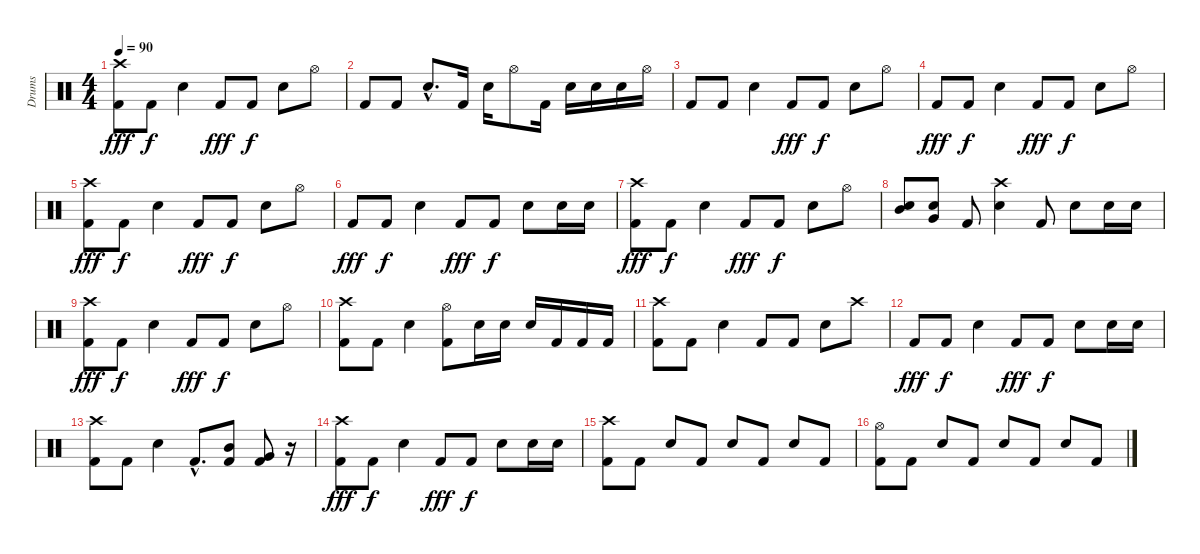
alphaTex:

\track ("Drums" "Drums") {instrument percussion}
\staff {score}
\articulation defaults
\ts (4 4)
\tempo 90
\clef neutral
\ks c
("Crash high (hit)" "Kick (hit) 2").8{dy fff} "Kick (hit) 2".8{dy f} "Snare (hit) 2".4 "Kick (hit) 2".8{dy fff} "Kick (hit) 2".8{dy f} "Snare (hit) 2".8 "Hi-Hat (open)".8 |
"Kick (hit) 2".8 "Kick (hit) 2".8 "Snare (hit) 2"{hac}.8{d} "Kick (hit) 2".16 "Snare (hit) 2".16 "Hi-Hat (open)".8 "Kick (hit) 2".16 "Snare (hit) 2".16 "Snare (hit) 2".16 "Snare (hit) 2".16 "Hi-Hat (open)".16 |
"Kick (hit) 2".8 "Kick (hit) 2".8 "Snare (hit) 2".4 "Kick (hit) 2".8{dy fff} "Kick (hit) 2".8{dy f} "Snare (hit) 2".8 "Hi-Hat (open)".8 |
"Kick (hit) 2".8{dy fff} "Kick (hit) 2".8{dy f} "Snare (hit) 2".4 "Kick (hit) 2".8{dy fff} "Kick (hit) 2".8{dy f} "Snare (hit) 2".8 "Hi-Hat (open)".8 |
("Crash high (hit)" "Kick (hit) 2").8{dy fff} "Kick (hit) 2".8{dy f} "Snare (hit) 2".4 "Kick (hit) 2".8{dy fff} "Kick (hit) 2".8{dy f} "Snare (hit) 2".8 "Hi-Hat (open)".8 |
"Kick (hit) 2".8{dy fff} "Kick (hit) 2".8{dy f} "Snare (hit) 2".4 "Kick (hit) 2".8{dy fff} "Kick (hit) 2".8{dy f} "Snare (hit) 2".8 "Snare (hit) 2".16 "Snare (hit) 2".16 |
("Crash high (hit)" "Kick (hit) 2").8{dy fff} "Kick (hit) 2".8{dy f} "Snare (hit) 2".4 "Kick (hit) 2".8{dy fff} "Kick (hit) 2".8{dy f} "Snare (hit) 2".8 "Hi-Hat (open)".8 |
("Snare (hit) 2" "Mid Tom (hit)").8 ("Snare (hit) 2" "Very Low Tom (hit)").8 "Kick (hit) 2".8 ("Crash high (hit)" "Snare (hit) 2").4 "Kick (hit) 2".8 "Snare (hit) 2".8 "Snare (hit) 2".16 "Snare (hit) 2".16 |
("Crash high (hit)" "Kick (hit) 2").8{dy fff} "Kick (hit) 2".8{dy f} "Snare (hit) 2".4 "Kick (hit) 2".8{dy fff} "Kick (hit) 2".8{dy f} "Snare (hit) 2".8 "Hi-Hat (open)".8 |
("Crash high (hit)" "Kick (hit) 2").8 "Kick (hit) 2".8 "Snare (hit) 2".4 ("Hi-Hat (open)" "Kick (hit) 2").8 "Snare (hit) 2".16 "Snare (hit) 2".16 "Snare (hit) 2".16 "Kick (hit) 2".16 "Kick (hit) 2".16 "Kick (hit) 2".16 |
("Crash high (hit)" "Kick (hit) 2").8 "Kick (hit) 2".8 "Snare (hit) 2".4 "Kick (hit) 2".8 "Kick (hit) 2".8 "Snare (hit) 2".8 "Crash high (hit)".8 |
"Kick (hit) 2".8{dy fff} "Kick (hit) 2".8{dy f} "Snare (hit) 2".4 "Kick (hit) 2".8{dy fff} "Kick (hit) 2".8{dy f} "Snare (hit) 2".8 "Snare (hit) 2".16 "Snare (hit) 2".16 |
("Crash high (hit)" "Kick (hit) 2").8 "Kick (hit) 2".8 "Snare (hit) 2".4 "Kick (hit) 2"{hac}.8{d} ("Kick (hit) 2" "Mid Tom (hit)").8 ("Kick (hit) 2" "Very Low Tom (hit)").8 r.16 |
("Crash high (hit)" "Kick (hit) 2").8{dy fff} "Kick (hit) 2".8{dy f} "Snare (hit) 2".4 "Kick (hit) 2".8{dy fff} "Kick (hit) 2".8{dy f} "Snare (hit) 2".8 "Snare (hit) 2".16 "Snare (hit) 2".16 |
("Crash high (hit)" "Kick (hit) 2").8 "Kick (hit) 2".8 "Snare (hit) 2".8 "Kick (hit) 2".8 "Snare (hit) 2".8 "Kick (hit) 2".8 "Snare (hit) 2".8 "Kick (hit) 2".8 |
("Hi-Hat (open)" "Kick (hit) 2").8 "Kick (hit) 2".8 "Snare (hit) 2".8 "Kick (hit) 2".8 "Snare (hit) 2".8 "Kick (hit) 2".8 "Snare (hit) 2".8 "Kick (hit) 2".8
